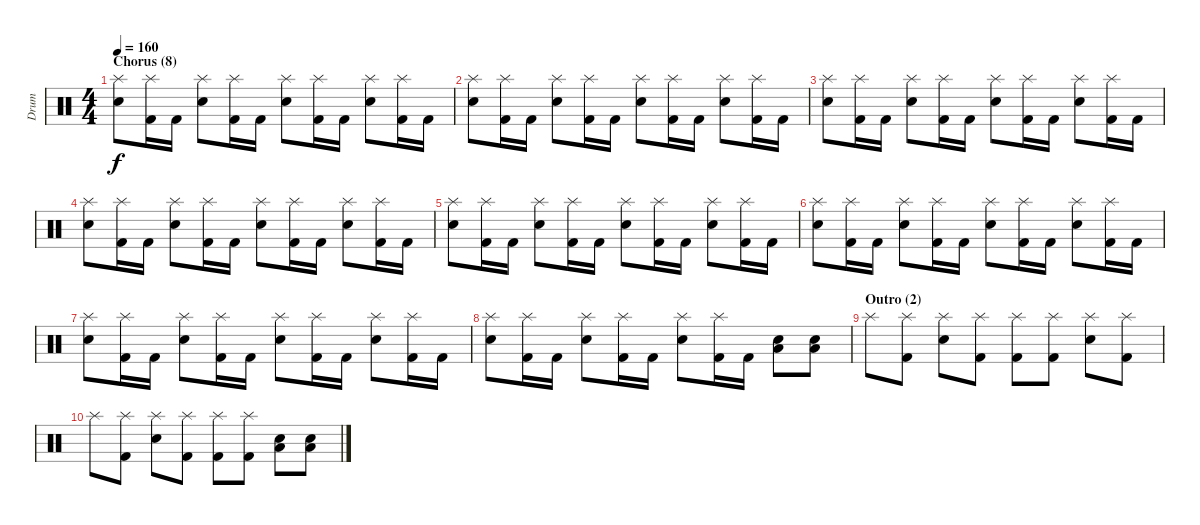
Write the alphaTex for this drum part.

\track ("Drum" "Drum") {instrument percussion}
\staff {score}
\articulation defaults
\ts (4 4)
\section ("" "Chorus (8)")
\tempo 160
\clef neutral
\ks c
("Splash (hit)" "Snare (hit) 2").8{dy f} ("Splash (hit)" "Kick (hit) 2").16 "Kick (hit) 2".16 ("Splash (hit)" "Snare (hit) 2").8 ("Splash (hit)" "Kick (hit) 2").16 "Kick (hit) 2".16 ("Splash (hit)" "Snare (hit) 2").8 ("Splash (hit)" "Kick (hit) 2").16 "Kick (hit) 2".16 ("Splash (hit)" "Snare (hit) 2").8 ("Splash (hit)" "Kick (hit) 2").16 "Kick (hit) 2".16 |
("Splash (hit)" "Snare (hit) 2").8 ("Splash (hit)" "Kick (hit) 2").16 "Kick (hit) 2".16 ("Splash (hit)" "Snare (hit) 2").8 ("Splash (hit)" "Kick (hit) 2").16 "Kick (hit) 2".16 ("Splash (hit)" "Snare (hit) 2").8 ("Splash (hit)" "Kick (hit) 2").16 "Kick (hit) 2".16 ("Splash (hit)" "Snare (hit) 2").8 ("Splash (hit)" "Kick (hit) 2").16 "Kick (hit) 2".16 |
("Splash (hit)" "Snare (hit) 2").8 ("Splash (hit)" "Kick (hit) 2").16 "Kick (hit) 2".16 ("Splash (hit)" "Snare (hit) 2").8 ("Splash (hit)" "Kick (hit) 2").16 "Kick (hit) 2".16 ("Splash (hit)" "Snare (hit) 2").8 ("Splash (hit)" "Kick (hit) 2").16 "Kick (hit) 2".16 ("Splash (hit)" "Snare (hit) 2").8 ("Splash (hit)" "Kick (hit) 2").16 "Kick (hit) 2".16 |
("Splash (hit)" "Snare (hit) 2").8 ("Splash (hit)" "Kick (hit) 2").16 "Kick (hit) 2".16 ("Splash (hit)" "Snare (hit) 2").8 ("Splash (hit)" "Kick (hit) 2").16 "Kick (hit) 2".16 ("Splash (hit)" "Snare (hit) 2").8 ("Splash (hit)" "Kick (hit) 2").16 "Kick (hit) 2".16 ("Splash (hit)" "Snare (hit) 2").8 ("Splash (hit)" "Kick (hit) 2").16 "Kick (hit) 2".16 |
("Splash (hit)" "Snare (hit) 2").8 ("Splash (hit)" "Kick (hit) 2").16 "Kick (hit) 2".16 ("Splash (hit)" "Snare (hit) 2").8 ("Splash (hit)" "Kick (hit) 2").16 "Kick (hit) 2".16 ("Splash (hit)" "Snare (hit) 2").8 ("Splash (hit)" "Kick (hit) 2").16 "Kick (hit) 2".16 ("Splash (hit)" "Snare (hit) 2").8 ("Splash (hit)" "Kick (hit) 2").16 "Kick (hit) 2".16 |
("Splash (hit)" "Snare (hit) 2").8 ("Splash (hit)" "Kick (hit) 2").16 "Kick (hit) 2".16 ("Splash (hit)" "Snare (hit) 2").8 ("Splash (hit)" "Kick (hit) 2").16 "Kick (hit) 2".16 ("Splash (hit)" "Snare (hit) 2").8 ("Splash (hit)" "Kick (hit) 2").16 "Kick (hit) 2".16 ("Splash (hit)" "Snare (hit) 2").8 ("Splash (hit)" "Kick (hit) 2").16 "Kick (hit) 2".16 |
("Splash (hit)" "Snare (hit) 2").8 ("Splash (hit)" "Kick (hit) 2").16 "Kick (hit) 2".16 ("Splash (hit)" "Snare (hit) 2").8 ("Splash (hit)" "Kick (hit) 2").16 "Kick (hit) 2".16 ("Splash (hit)" "Snare (hit) 2").8 ("Splash (hit)" "Kick (hit) 2").16 "Kick (hit) 2".16 ("Splash (hit)" "Snare (hit) 2").8 ("Splash (hit)" "Kick (hit) 2").16 "Kick (hit) 2".16 |
("Splash (hit)" "Snare (hit) 2").8 ("Splash (hit)" "Kick (hit) 2").16 "Kick (hit) 2".16 ("Splash (hit)" "Snare (hit) 2").8 ("Splash (hit)" "Kick (hit) 2").16 "Kick (hit) 2".16 ("Splash (hit)" "Snare (hit) 2").8 ("Splash (hit)" "Kick (hit) 2").16 "Kick (hit) 2".16 ("Low Floor Tom (hit)" "Snare (hit) 2").8 ("Low Floor Tom (hit)" "Snare (hit) 2").8 |
\section ("" "Outro (2)")
"Splash (hit)".8 ("Splash (hit)" "Kick (hit) 2").8 ("Splash (hit)" "Snare (hit) 2").8 ("Splash (hit)" "Kick (hit) 2").8 ("Splash (hit)" "Kick (hit) 2").8 ("Splash (hit)" "Kick (hit) 2").8 ("Splash (hit)" "Snare (hit) 2").8 ("Splash (hit)" "Kick (hit) 2").8 |
"Splash (hit)".8 ("Splash (hit)" "Kick (hit) 2").8 ("Splash (hit)" "Snare (hit) 2").8 ("Splash (hit)" "Kick (hit) 2").8 ("Splash (hit)" "Kick (hit) 2").8 ("Splash (hit)" "Kick (hit) 2").8 ("Low Floor Tom (hit)" "Snare (hit) 2").8 ("Low Floor Tom (hit)" "Snare (hit) 2").8
